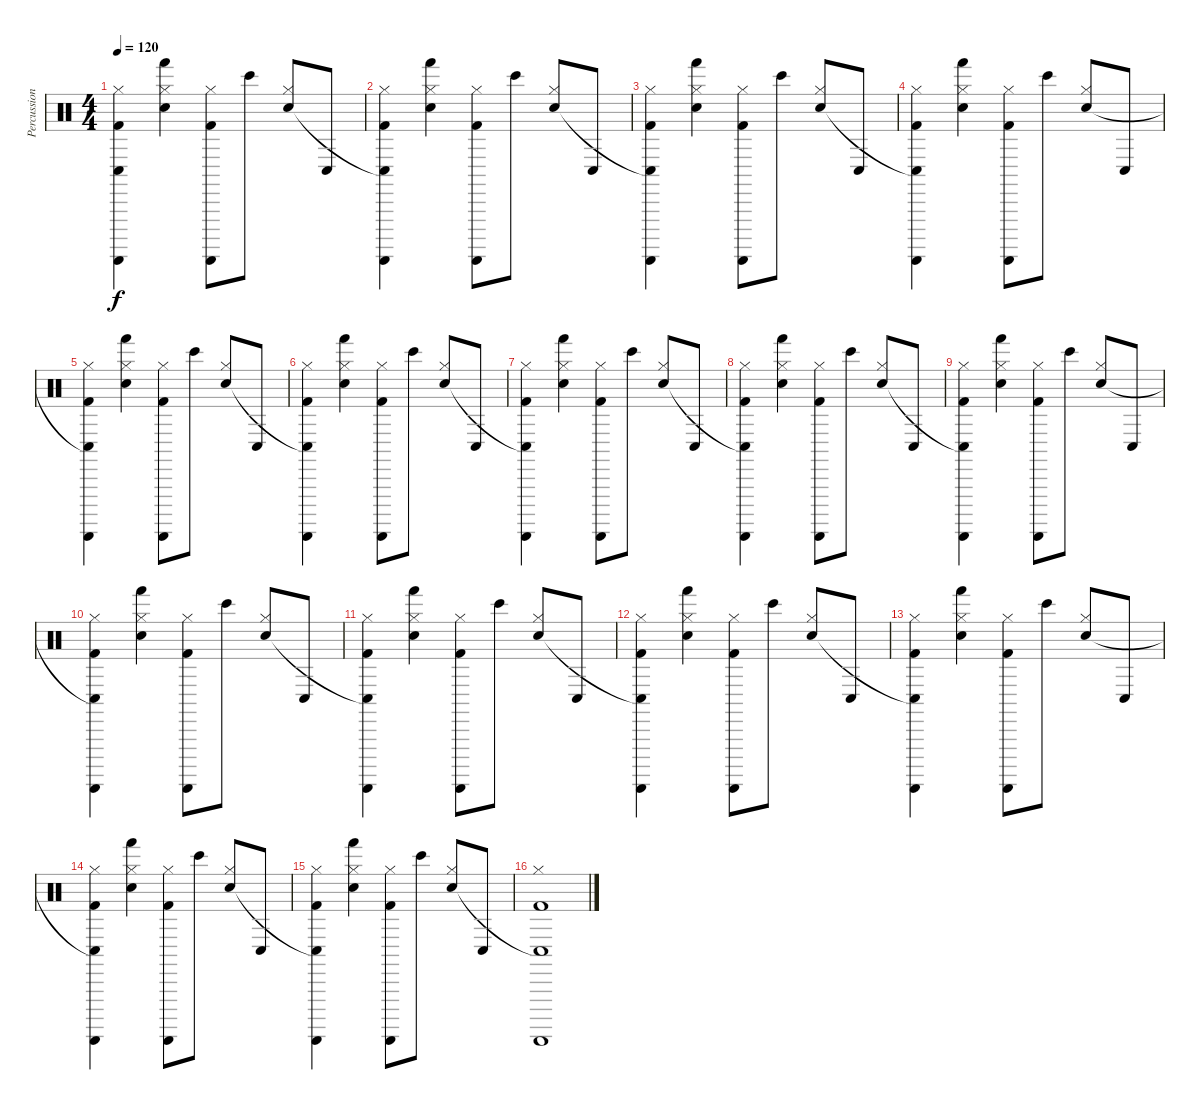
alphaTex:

\track ("Percussions" "Percussion") {instrument percussion}
\staff {score}
\articulation defaults
\ts (4 4)
\tempo 120
\clef neutral
\ks c
("Hi-Hat (closed)" "Conga low (hit)"{t} "Guiro (scrap-return)" "Kick (hit) 2").4{dy f} ("Hi-Hat (closed)" "Hand (hit)" "Snare (hit) 2").4 ("Hi-Hat (closed)" "Guiro (scrap-return)" "Kick (hit) 2").8 "Bongo High (hit)".8 ("Hi-Hat (closed)" "Snare (hit) 2").8 "Conga low (hit)".8 |
("Hi-Hat (closed)" "Conga low (hit)"{t} "Guiro (scrap-return)" "Kick (hit) 2").4 ("Hi-Hat (closed)" "Hand (hit)" "Snare (hit) 2").4 ("Hi-Hat (closed)" "Guiro (scrap-return)" "Kick (hit) 2").8 "Bongo High (hit)".8 ("Hi-Hat (closed)" "Snare (hit) 2").8 "Conga low (hit)".8 |
("Hi-Hat (closed)" "Conga low (hit)"{t} "Guiro (scrap-return)" "Kick (hit) 2").4 ("Hi-Hat (closed)" "Hand (hit)" "Snare (hit) 2").4 ("Hi-Hat (closed)" "Guiro (scrap-return)" "Kick (hit) 2").8 "Bongo High (hit)".8 ("Hi-Hat (closed)" "Snare (hit) 2").8 "Conga low (hit)".8 |
("Hi-Hat (closed)" "Conga low (hit)"{t} "Guiro (scrap-return)" "Kick (hit) 2").4 ("Hi-Hat (closed)" "Hand (hit)" "Snare (hit) 2").4 ("Hi-Hat (closed)" "Guiro (scrap-return)" "Kick (hit) 2").8 "Bongo High (hit)".8 ("Hi-Hat (closed)" "Snare (hit) 2").8 "Conga low (hit)".8 |
("Hi-Hat (closed)" "Conga low (hit)"{t} "Guiro (scrap-return)" "Kick (hit) 2").4 ("Hi-Hat (closed)" "Hand (hit)" "Snare (hit) 2").4 ("Hi-Hat (closed)" "Guiro (scrap-return)" "Kick (hit) 2").8 "Bongo High (hit)".8 ("Hi-Hat (closed)" "Snare (hit) 2").8 "Conga low (hit)".8 |
("Hi-Hat (closed)" "Conga low (hit)"{t} "Guiro (scrap-return)" "Kick (hit) 2").4 ("Hi-Hat (closed)" "Hand (hit)" "Snare (hit) 2").4 ("Hi-Hat (closed)" "Guiro (scrap-return)" "Kick (hit) 2").8 "Bongo High (hit)".8 ("Hi-Hat (closed)" "Snare (hit) 2").8 "Conga low (hit)".8 |
("Hi-Hat (closed)" "Conga low (hit)"{t} "Guiro (scrap-return)" "Kick (hit) 2").4{volume 12} ("Hi-Hat (closed)" "Hand (hit)" "Snare (hit) 2").4 ("Hi-Hat (closed)" "Guiro (scrap-return)" "Kick (hit) 2").8 "Bongo High (hit)".8 ("Hi-Hat (closed)" "Snare (hit) 2").8 "Conga low (hit)".8 |
("Hi-Hat (closed)" "Conga low (hit)"{t} "Guiro (scrap-return)" "Kick (hit) 2").4 ("Hi-Hat (closed)" "Hand (hit)" "Snare (hit) 2").4 ("Hi-Hat (closed)" "Guiro (scrap-return)" "Kick (hit) 2").8 "Bongo High (hit)".8 ("Hi-Hat (closed)" "Snare (hit) 2").8 "Conga low (hit)".8 |
("Hi-Hat (closed)" "Conga low (hit)"{t} "Guiro (scrap-return)" "Kick (hit) 2").4{volume 10} ("Hi-Hat (closed)" "Hand (hit)" "Snare (hit) 2").4 ("Hi-Hat (closed)" "Guiro (scrap-return)" "Kick (hit) 2").8 "Bongo High (hit)".8 ("Hi-Hat (closed)" "Snare (hit) 2").8 "Conga low (hit)".8 |
("Hi-Hat (closed)" "Conga low (hit)"{t} "Guiro (scrap-return)" "Kick (hit) 2").4 ("Hi-Hat (closed)" "Hand (hit)" "Snare (hit) 2").4 ("Hi-Hat (closed)" "Guiro (scrap-return)" "Kick (hit) 2").8 "Bongo High (hit)".8 ("Hi-Hat (closed)" "Snare (hit) 2").8 "Conga low (hit)".8 |
("Hi-Hat (closed)" "Conga low (hit)"{t} "Guiro (scrap-return)" "Kick (hit) 2").4{volume 8} ("Hi-Hat (closed)" "Hand (hit)" "Snare (hit) 2").4 ("Hi-Hat (closed)" "Guiro (scrap-return)" "Kick (hit) 2").8 "Bongo High (hit)".8 ("Hi-Hat (closed)" "Snare (hit) 2").8 "Conga low (hit)".8 |
("Hi-Hat (closed)" "Conga low (hit)"{t} "Guiro (scrap-return)" "Kick (hit) 2").4 ("Hi-Hat (closed)" "Hand (hit)" "Snare (hit) 2").4 ("Hi-Hat (closed)" "Guiro (scrap-return)" "Kick (hit) 2").8 "Bongo High (hit)".8 ("Hi-Hat (closed)" "Snare (hit) 2").8 "Conga low (hit)".8 |
("Hi-Hat (closed)" "Conga low (hit)"{t} "Guiro (scrap-return)" "Kick (hit) 2").4{volume 6} ("Hi-Hat (closed)" "Hand (hit)" "Snare (hit) 2").4 ("Hi-Hat (closed)" "Guiro (scrap-return)" "Kick (hit) 2").8 "Bongo High (hit)".8 ("Hi-Hat (closed)" "Snare (hit) 2").8 "Conga low (hit)".8 |
("Hi-Hat (closed)" "Conga low (hit)"{t} "Guiro (scrap-return)" "Kick (hit) 2").4 ("Hi-Hat (closed)" "Hand (hit)" "Snare (hit) 2").4 ("Hi-Hat (closed)" "Guiro (scrap-return)" "Kick (hit) 2").8 "Bongo High (hit)".8 ("Hi-Hat (closed)" "Snare (hit) 2").8 "Conga low (hit)".8 |
("Hi-Hat (closed)" "Conga low (hit)"{t} "Guiro (scrap-return)" "Kick (hit) 2").4{volume 4} ("Hi-Hat (closed)" "Hand (hit)" "Snare (hit) 2").4 ("Hi-Hat (closed)" "Guiro (scrap-return)" "Kick (hit) 2").8 "Bongo High (hit)".8 ("Hi-Hat (closed)" "Snare (hit) 2").8 "Conga low (hit)".8 |
("Hi-Hat (closed)" "Conga low (hit)"{t} "Guiro (scrap-return)" "Kick (hit) 2").1
